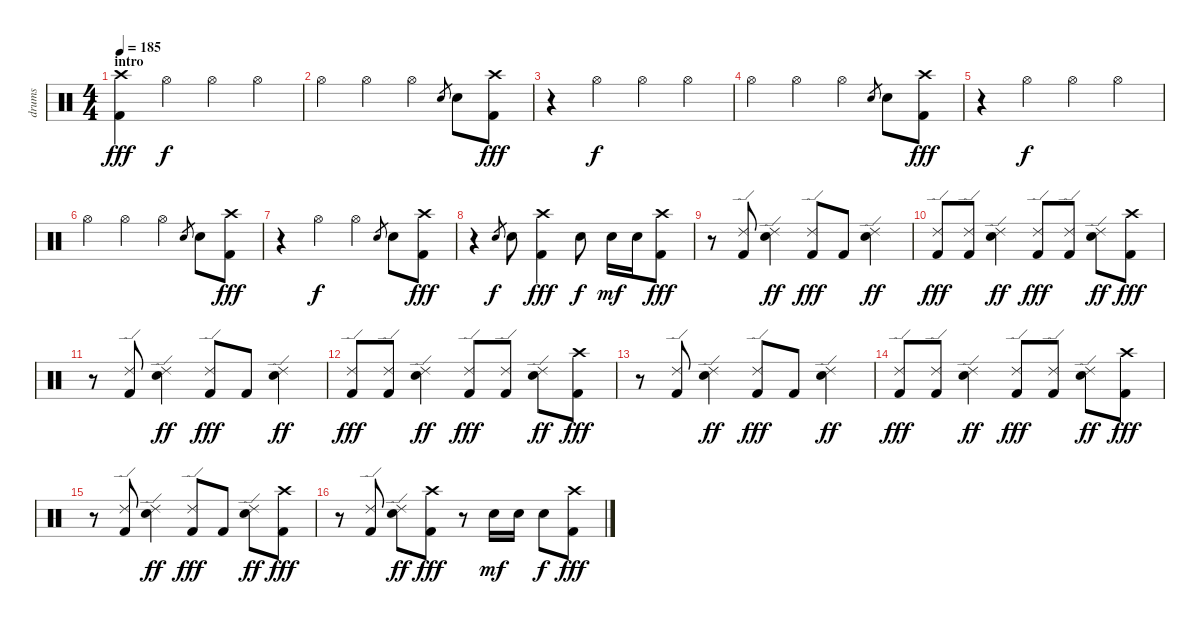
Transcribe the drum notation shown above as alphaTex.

\track ("drums" "drums") {instrument percussion}
\staff {score}
\articulation defaults
\ts (4 4)
\section ("" "intro")
\tempo 185
\clef neutral
\ks c
("Crash high (hit)" "Kick (hit) 2").4{dy fff} "Hi-Hat (open)".4{dy f} "Hi-Hat (open)".4 "Hi-Hat (open)".4 |
"Hi-Hat (open)".4 "Hi-Hat (open)".4 "Hi-Hat (open)".4 "Snare (hit) 2".8{gr} "Snare (hit) 2".8 ("Crash high (hit)" "Kick (hit) 2").8{dy fff} |
r.4 "Hi-Hat (open)".4{dy f} "Hi-Hat (open)".4 "Hi-Hat (open)".4 |
"Hi-Hat (open)".4 "Hi-Hat (open)".4 "Hi-Hat (open)".4 "Snare (hit) 2".8{gr} "Snare (hit) 2".8 ("Crash high (hit)" "Kick (hit) 2").8{dy fff} |
r.4 "Hi-Hat (open)".4{dy f} "Hi-Hat (open)".4 "Hi-Hat (open)".4 |
"Hi-Hat (open)".4 "Hi-Hat (open)".4 "Hi-Hat (open)".4 "Snare (hit) 2".8{gr} "Snare (hit) 2".8 ("Crash high (hit)" "Kick (hit) 2").8{dy fff} |
r.4 "Hi-Hat (open)".4{dy f} "Hi-Hat (open)".4 "Snare (hit) 2".8{gr} "Snare (hit) 2".8 ("Crash high (hit)" "Kick (hit) 2").8{dy fff} |
r.4 "Snare (hit) 2".8{gr dy f} "Snare (hit) 2".8 ("Crash high (hit)" "Kick (hit) 2").4{dy fff} "Snare (hit) 2".8{dy f} "Snare (hit) 2".16{dy mf} "Snare (hit) 2".16 ("Crash high (hit)" "Kick (hit) 2").8{dy fff} |
r.8 ("Ride (edge) 2" "Kick (hit) 2").8 ("Ride (edge) 2" "Snare (hit) 2").4{dy ff} ("Ride (edge) 2" "Kick (hit) 2").8{dy fff} "Kick (hit) 2".8 ("Ride (edge) 2" "Snare (hit) 2").4{dy ff} |
("Ride (edge) 2" "Kick (hit) 2").8{dy fff} ("Ride (edge) 2" "Kick (hit) 2").8 ("Ride (edge) 2" "Snare (hit) 2").4{dy ff} ("Ride (edge) 2" "Kick (hit) 2").8{dy fff} ("Ride (edge) 2" "Kick (hit) 2").8 ("Ride (edge) 2" "Snare (hit) 2").8{dy ff} ("Crash high (hit)" "Kick (hit) 2").8{dy fff} |
r.8 ("Ride (edge) 2" "Kick (hit) 2").8 ("Ride (edge) 2" "Snare (hit) 2").4{dy ff} ("Ride (edge) 2" "Kick (hit) 2").8{dy fff} "Kick (hit) 2".8 ("Ride (edge) 2" "Snare (hit) 2").4{dy ff} |
("Ride (edge) 2" "Kick (hit) 2").8{dy fff} ("Ride (edge) 2" "Kick (hit) 2").8 ("Ride (edge) 2" "Snare (hit) 2").4{dy ff} ("Ride (edge) 2" "Kick (hit) 2").8{dy fff} ("Ride (edge) 2" "Kick (hit) 2").8 ("Ride (edge) 2" "Snare (hit) 2").8{dy ff} ("Crash high (hit)" "Kick (hit) 2").8{dy fff} |
r.8 ("Ride (edge) 2" "Kick (hit) 2").8 ("Ride (edge) 2" "Snare (hit) 2").4{dy ff} ("Ride (edge) 2" "Kick (hit) 2").8{dy fff} "Kick (hit) 2".8 ("Ride (edge) 2" "Snare (hit) 2").4{dy ff} |
("Ride (edge) 2" "Kick (hit) 2").8{dy fff} ("Ride (edge) 2" "Kick (hit) 2").8 ("Ride (edge) 2" "Snare (hit) 2").4{dy ff} ("Ride (edge) 2" "Kick (hit) 2").8{dy fff} ("Ride (edge) 2" "Kick (hit) 2").8 ("Ride (edge) 2" "Snare (hit) 2").8{dy ff} ("Crash high (hit)" "Kick (hit) 2").8{dy fff} |
r.8 ("Ride (edge) 2" "Kick (hit) 2").8 ("Ride (edge) 2" "Snare (hit) 2").4{dy ff} ("Ride (edge) 2" "Kick (hit) 2").8{dy fff} "Kick (hit) 2".8 ("Ride (edge) 2" "Snare (hit) 2").8{dy ff} ("Crash high (hit)" "Kick (hit) 2").8{dy fff} |
r.8 ("Ride (edge) 2" "Kick (hit) 2").8 ("Ride (edge) 2" "Snare (hit) 2").8{dy ff} ("Crash high (hit)" "Kick (hit) 2").8{dy fff} r.8 "Snare (hit) 2".16{dy mf} "Snare (hit) 2".16 "Snare (hit) 2".8{dy f} ("Crash high (hit)" "Kick (hit) 2").8{dy fff}
